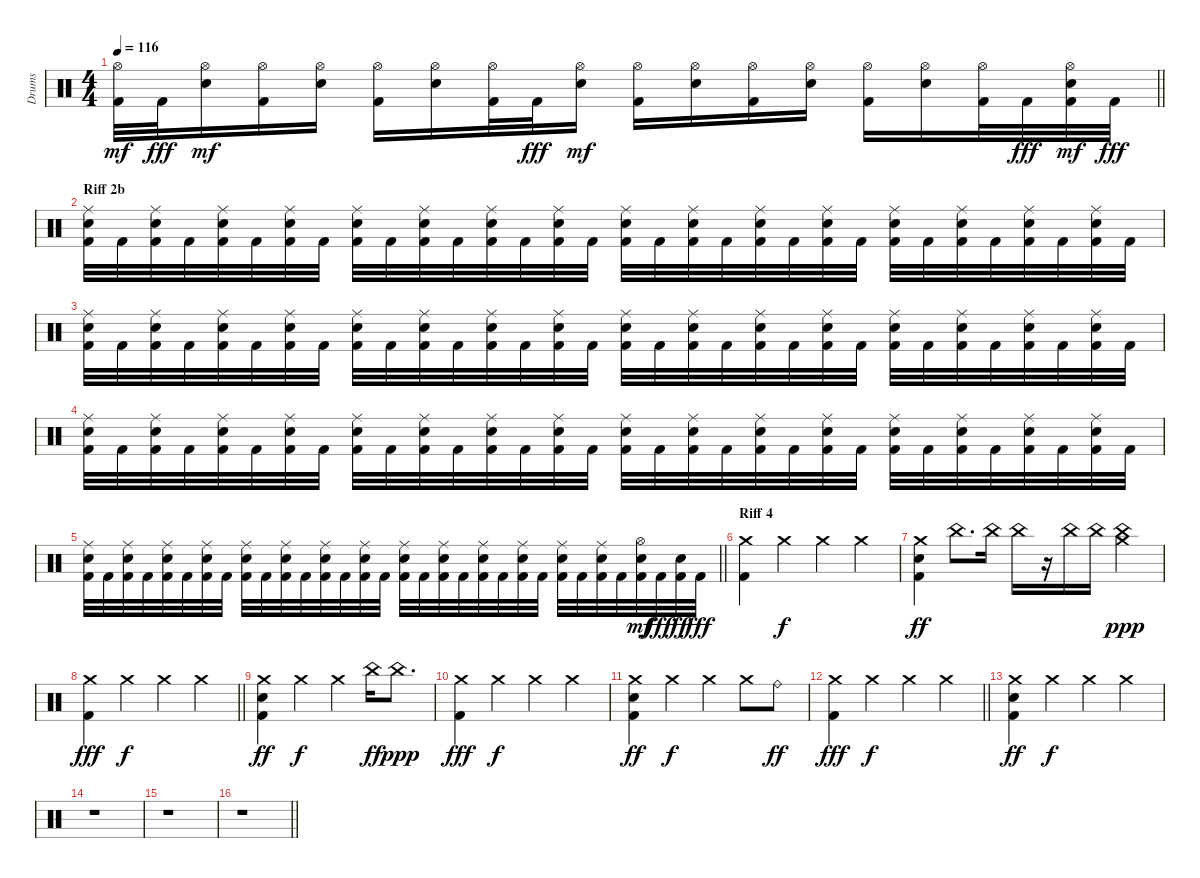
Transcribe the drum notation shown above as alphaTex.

\track ("Drums" "Drums") {instrument percussion}
\staff {score}
\articulation defaults
\ts (4 4)
\tempo 116
\clef neutral
\barLineRight lightlight
\ks c
("Kick (hit) 2" "Hi-Hat (open)").32{dy mf} "Kick (hit) 2".32{dy fff} ("Snare (hit) 2" "Hi-Hat (open)").16{dy mf} ("Kick (hit) 2" "Hi-Hat (open)").16 ("Snare (hit) 2" "Hi-Hat (open)").16 ("Kick (hit) 2" "Hi-Hat (open)").16 ("Snare (hit) 2" "Hi-Hat (open)").16 ("Kick (hit) 2" "Hi-Hat (open)").32 "Kick (hit) 2".32{dy fff} ("Snare (hit) 2" "Hi-Hat (open)").16{dy mf} ("Kick (hit) 2" "Hi-Hat (open)").16 ("Snare (hit) 2" "Hi-Hat (open)").16 ("Kick (hit) 2" "Hi-Hat (open)").16 ("Snare (hit) 2" "Hi-Hat (open)").16 ("Kick (hit) 2" "Hi-Hat (open)").16 ("Snare (hit) 2" "Hi-Hat (open)").16 ("Kick (hit) 2" "Hi-Hat (open)").32 "Kick (hit) 2".32{dy fff} ("Kick (hit) 2" "Snare (hit) 2" "Hi-Hat (open)").32{dy mf} "Kick (hit) 2".32{dy fff} |
\section ("" "Riff 2b")
("Kick (hit) 2" "Snare (hit) 2" "Ride (middle)").32 "Kick (hit) 2".32 ("Kick (hit) 2" "Snare (hit) 2" "Ride (middle)").32 "Kick (hit) 2".32 ("Kick (hit) 2" "Snare (hit) 2" "Ride (middle)").32 "Kick (hit) 2".32 ("Kick (hit) 2" "Snare (hit) 2" "Ride (middle)").32 "Kick (hit) 2".32 ("Kick (hit) 2" "Snare (hit) 2" "Ride (middle)").32 "Kick (hit) 2".32 ("Kick (hit) 2" "Snare (hit) 2" "Ride (middle)").32 "Kick (hit) 2".32 ("Kick (hit) 2" "Snare (hit) 2" "Ride (middle)").32 "Kick (hit) 2".32 ("Kick (hit) 2" "Snare (hit) 2" "Ride (middle)").32 "Kick (hit) 2".32 ("Kick (hit) 2" "Snare (hit) 2" "Ride (middle)").32 "Kick (hit) 2".32 ("Kick (hit) 2" "Snare (hit) 2" "Ride (middle)").32 "Kick (hit) 2".32 ("Kick (hit) 2" "Snare (hit) 2" "Ride (middle)").32 "Kick (hit) 2".32 ("Kick (hit) 2" "Snare (hit) 2" "Ride (middle)").32 "Kick (hit) 2".32 ("Kick (hit) 2" "Snare (hit) 2" "Ride (middle)").32 "Kick (hit) 2".32 ("Kick (hit) 2" "Snare (hit) 2" "Ride (middle)").32 "Kick (hit) 2".32 ("Kick (hit) 2" "Snare (hit) 2" "Ride (middle)").32 "Kick (hit) 2".32 ("Kick (hit) 2" "Snare (hit) 2" "Ride (middle)").32 "Kick (hit) 2".32 |
("Kick (hit) 2" "Snare (hit) 2" "Ride (middle)").32 "Kick (hit) 2".32 ("Kick (hit) 2" "Snare (hit) 2" "Ride (middle)").32 "Kick (hit) 2".32 ("Kick (hit) 2" "Snare (hit) 2" "Ride (middle)").32 "Kick (hit) 2".32 ("Kick (hit) 2" "Snare (hit) 2" "Ride (middle)").32 "Kick (hit) 2".32 ("Kick (hit) 2" "Snare (hit) 2" "Ride (middle)").32 "Kick (hit) 2".32 ("Kick (hit) 2" "Snare (hit) 2" "Ride (middle)").32 "Kick (hit) 2".32 ("Kick (hit) 2" "Snare (hit) 2" "Ride (middle)").32 "Kick (hit) 2".32 ("Kick (hit) 2" "Snare (hit) 2" "Ride (middle)").32 "Kick (hit) 2".32 ("Kick (hit) 2" "Snare (hit) 2" "Ride (middle)").32 "Kick (hit) 2".32 ("Kick (hit) 2" "Snare (hit) 2" "Ride (middle)").32 "Kick (hit) 2".32 ("Kick (hit) 2" "Snare (hit) 2" "Ride (middle)").32 "Kick (hit) 2".32 ("Kick (hit) 2" "Snare (hit) 2" "Ride (middle)").32 "Kick (hit) 2".32 ("Kick (hit) 2" "Snare (hit) 2" "Ride (middle)").32 "Kick (hit) 2".32 ("Kick (hit) 2" "Snare (hit) 2" "Ride (middle)").32 "Kick (hit) 2".32 ("Kick (hit) 2" "Snare (hit) 2" "Ride (middle)").32 "Kick (hit) 2".32 ("Kick (hit) 2" "Snare (hit) 2" "Ride (middle)").32 "Kick (hit) 2".32 |
("Kick (hit) 2" "Snare (hit) 2" "Ride (middle)").32 "Kick (hit) 2".32 ("Kick (hit) 2" "Snare (hit) 2" "Ride (middle)").32 "Kick (hit) 2".32 ("Kick (hit) 2" "Snare (hit) 2" "Ride (middle)").32 "Kick (hit) 2".32 ("Kick (hit) 2" "Snare (hit) 2" "Ride (middle)").32 "Kick (hit) 2".32 ("Kick (hit) 2" "Snare (hit) 2" "Ride (middle)").32 "Kick (hit) 2".32 ("Kick (hit) 2" "Snare (hit) 2" "Ride (middle)").32 "Kick (hit) 2".32 ("Kick (hit) 2" "Snare (hit) 2" "Ride (middle)").32 "Kick (hit) 2".32 ("Kick (hit) 2" "Snare (hit) 2" "Ride (middle)").32 "Kick (hit) 2".32 ("Kick (hit) 2" "Snare (hit) 2" "Ride (middle)").32 "Kick (hit) 2".32 ("Kick (hit) 2" "Snare (hit) 2" "Ride (middle)").32 "Kick (hit) 2".32 ("Kick (hit) 2" "Snare (hit) 2" "Ride (middle)").32 "Kick (hit) 2".32 ("Kick (hit) 2" "Snare (hit) 2" "Ride (middle)").32 "Kick (hit) 2".32 ("Kick (hit) 2" "Snare (hit) 2" "Ride (middle)").32 "Kick (hit) 2".32 ("Kick (hit) 2" "Snare (hit) 2" "Ride (middle)").32 "Kick (hit) 2".32 ("Kick (hit) 2" "Snare (hit) 2" "Ride (middle)").32 "Kick (hit) 2".32 ("Kick (hit) 2" "Snare (hit) 2" "Ride (middle)").32 "Kick (hit) 2".32 |
\barLineRight lightlight
("Kick (hit) 2" "Snare (hit) 2" "Ride (middle)").32 "Kick (hit) 2".32 ("Kick (hit) 2" "Snare (hit) 2" "Ride (middle)").32 "Kick (hit) 2".32 ("Kick (hit) 2" "Snare (hit) 2" "Ride (middle)").32 "Kick (hit) 2".32 ("Kick (hit) 2" "Snare (hit) 2" "Ride (middle)").32 "Kick (hit) 2".32 ("Kick (hit) 2" "Snare (hit) 2" "Ride (middle)").32 "Kick (hit) 2".32 ("Kick (hit) 2" "Snare (hit) 2" "Ride (middle)").32 "Kick (hit) 2".32 ("Kick (hit) 2" "Snare (hit) 2" "Ride (middle)").32 "Kick (hit) 2".32 ("Kick (hit) 2" "Snare (hit) 2" "Ride (middle)").32 "Kick (hit) 2".32 ("Kick (hit) 2" "Snare (hit) 2" "Ride (middle)").32 "Kick (hit) 2".32 ("Kick (hit) 2" "Snare (hit) 2" "Ride (middle)").32 "Kick (hit) 2".32 ("Kick (hit) 2" "Snare (hit) 2" "Ride (middle)").32 "Kick (hit) 2".32 ("Kick (hit) 2" "Snare (hit) 2" "Ride (middle)").32 "Kick (hit) 2".32 ("Kick (hit) 2" "Snare (hit) 2" "Ride (middle)").32 "Kick (hit) 2".32 ("Kick (hit) 2" "Snare (hit) 2" "Ride (middle)").32 "Kick (hit) 2".32 ("Kick (hit) 2" "Snare (hit) 2" "Hi-Hat (open)").32{dy mf} "Kick (hit) 2".32{dy fff} ("Kick (hit) 2" "Snare (hit) 2").32{dy ff} "Kick (hit) 2".32{dy fff} |
\section ("" "Riff 4")
("Kick (hit) 2" "Crash medium (hit)").4 "Crash medium (hit)".4{dy f} "Crash medium (hit)".4 "Crash medium (hit)".4 |
("Kick (hit) 2" "Snare (hit) 2" "Crash medium (hit)").4{dy ff} "China (hit)".8{d} "China (hit)".16 "China (hit)".16 r.16 "China (hit)".16 "China (hit)".16 ("China (hit)" "Crash medium (hit)").4{dy ppp} |
\barLineRight lightlight
("Kick (hit) 2" "Crash medium (hit)").4{dy fff} "Crash medium (hit)".4{dy f} "Crash medium (hit)".4 "Crash medium (hit)".4 |
("Kick (hit) 2" "Snare (hit) 2" "Crash medium (hit)").4{dy ff} "Crash medium (hit)".4{dy f} "Crash medium (hit)".4 "China (hit)".16{dy ff} "China (hit)".8{d dy ppp} |
("Kick (hit) 2" "Crash medium (hit)").4{dy fff} "Crash medium (hit)".4{dy f} "Crash medium (hit)".4 "Crash medium (hit)".4 |
("Kick (hit) 2" "Snare (hit) 2" "Crash medium (hit)").4{dy ff} "Crash medium (hit)".4{dy f} "Crash medium (hit)".4 "Crash medium (hit)".8 "Ride (bell)".8{dy ff} |
\barLineRight lightlight
("Kick (hit) 2" "Crash medium (hit)").4{dy fff} "Crash medium (hit)".4{dy f} "Crash medium (hit)".4 "Crash medium (hit)".4 |
("Kick (hit) 2" "Snare (hit) 2" "Crash medium (hit)").4{dy ff} "Crash medium (hit)".4{dy f} "Crash medium (hit)".4 "Crash medium (hit)".4 |
r.1 |
r.1 |
\barLineRight lightlight
r.1
